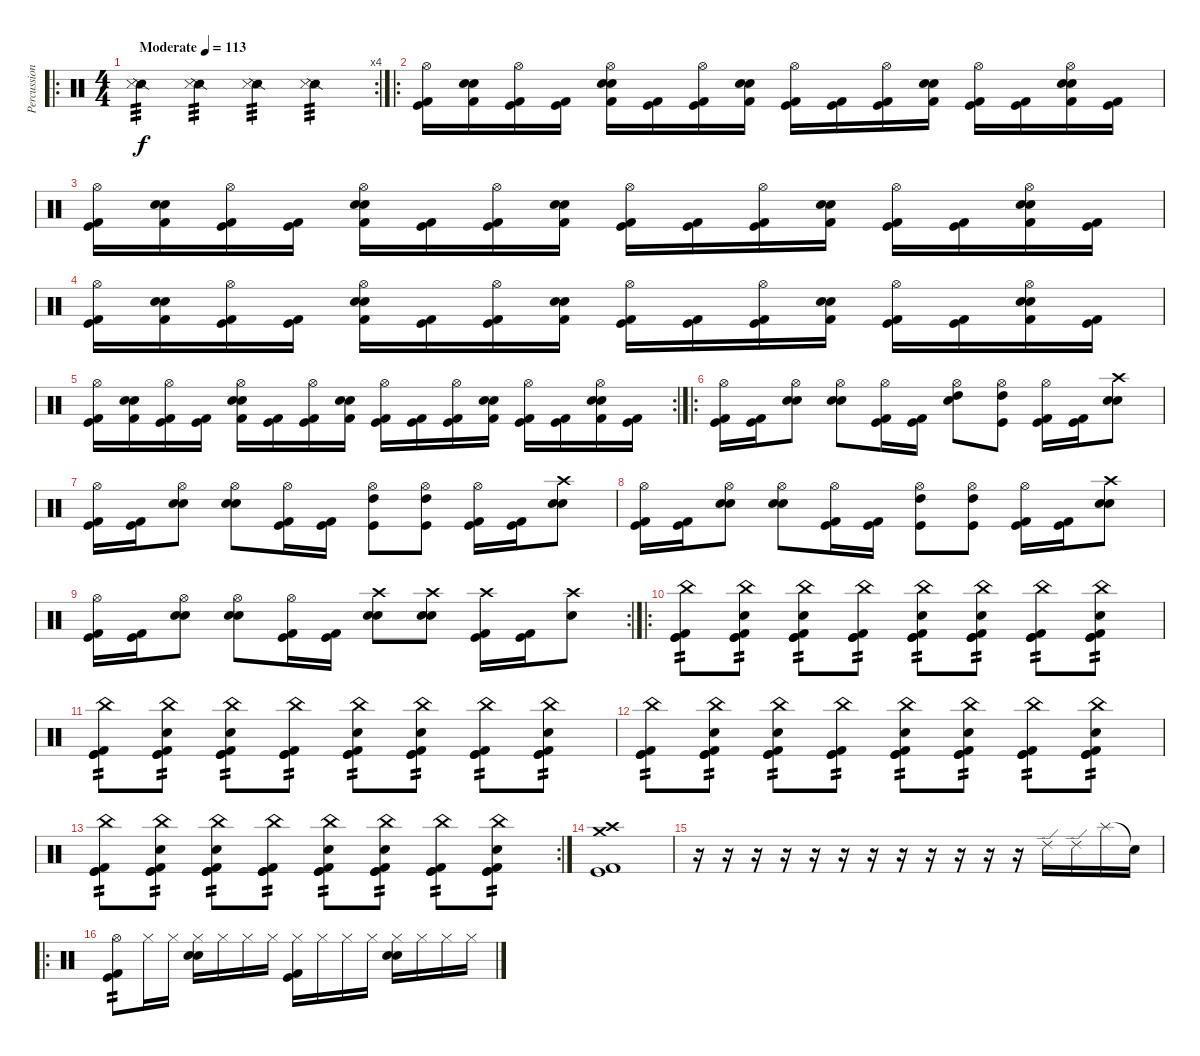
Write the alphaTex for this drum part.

\track ("Percussion" "Percussion") {instrument percussion}
\staff {score}
\articulation defaults
\ro
\rc 4
\ts (4 4)
\tempo (113 "Moderate")
\clef neutral
\ks c
("Snare (side stick) 2" "Metronome (hit)").4{tp 3 dy f} ("Snare (side stick) 2" "Metronome (hit)").4{tp 3} ("Snare (side stick) 2" "Metronome (hit)").4{tp 3} ("Snare (side stick) 2" "Metronome (hit)").4{tp 3} |
\ro
("Hi-Hat (open)" "Kick (hit) 2" "Kick (hit)").16 ("Kick (hit) 2" "Electric Snare (hit)" "Snare (hit) 2").16 ("Hi-Hat (open)" "Kick (hit) 2" "Kick (hit)").16 ("Kick (hit) 2" "Kick (hit)").16 ("Hi-Hat (open)" "Kick (hit) 2" "Electric Snare (hit)" "Snare (hit) 2").16 ("Kick (hit) 2" "Kick (hit)").16 ("Hi-Hat (open)" "Kick (hit) 2" "Kick (hit)").16 ("Kick (hit) 2" "Electric Snare (hit)" "Snare (hit) 2").16 ("Hi-Hat (open)" "Kick (hit) 2" "Kick (hit)").16 ("Kick (hit) 2" "Kick (hit)").16 ("Hi-Hat (open)" "Kick (hit) 2" "Kick (hit)").16 ("Kick (hit) 2" "Electric Snare (hit)" "Snare (hit) 2").16 ("Hi-Hat (open)" "Kick (hit) 2" "Kick (hit)").16 ("Kick (hit) 2" "Kick (hit)").16 ("Hi-Hat (open)" "Kick (hit) 2" "Electric Snare (hit)" "Snare (hit) 2").16 ("Kick (hit) 2" "Kick (hit)").16 |
("Hi-Hat (open)" "Kick (hit) 2" "Kick (hit)").16 ("Kick (hit) 2" "Electric Snare (hit)" "Snare (hit) 2").16 ("Hi-Hat (open)" "Kick (hit) 2" "Kick (hit)").16 ("Kick (hit) 2" "Kick (hit)").16 ("Hi-Hat (open)" "Kick (hit) 2" "Electric Snare (hit)" "Snare (hit) 2").16 ("Kick (hit) 2" "Kick (hit)").16 ("Hi-Hat (open)" "Kick (hit) 2" "Kick (hit)").16 ("Kick (hit) 2" "Electric Snare (hit)" "Snare (hit) 2").16 ("Hi-Hat (open)" "Kick (hit) 2" "Kick (hit)").16 ("Kick (hit) 2" "Kick (hit)").16 ("Hi-Hat (open)" "Kick (hit) 2" "Kick (hit)").16 ("Kick (hit) 2" "Electric Snare (hit)" "Snare (hit) 2").16 ("Hi-Hat (open)" "Kick (hit) 2" "Kick (hit)").16 ("Kick (hit) 2" "Kick (hit)").16 ("Hi-Hat (open)" "Kick (hit) 2" "Electric Snare (hit)" "Snare (hit) 2").16 ("Kick (hit) 2" "Kick (hit)").16 |
("Hi-Hat (open)" "Kick (hit) 2" "Kick (hit)").16 ("Kick (hit) 2" "Electric Snare (hit)" "Snare (hit) 2").16 ("Hi-Hat (open)" "Kick (hit) 2" "Kick (hit)").16 ("Kick (hit) 2" "Kick (hit)").16 ("Hi-Hat (open)" "Kick (hit) 2" "Electric Snare (hit)" "Snare (hit) 2").16 ("Kick (hit) 2" "Kick (hit)").16 ("Hi-Hat (open)" "Kick (hit) 2" "Kick (hit)").16 ("Kick (hit) 2" "Electric Snare (hit)" "Snare (hit) 2").16 ("Hi-Hat (open)" "Kick (hit) 2" "Kick (hit)").16 ("Kick (hit) 2" "Kick (hit)").16 ("Hi-Hat (open)" "Kick (hit) 2" "Kick (hit)").16 ("Kick (hit) 2" "Electric Snare (hit)" "Snare (hit) 2").16 ("Hi-Hat (open)" "Kick (hit) 2" "Kick (hit)").16 ("Kick (hit) 2" "Kick (hit)").16 ("Hi-Hat (open)" "Kick (hit) 2" "Electric Snare (hit)" "Snare (hit) 2").16 ("Kick (hit) 2" "Kick (hit)").16 |
\rc 2
("Hi-Hat (open)" "Kick (hit) 2" "Kick (hit)").16 ("Kick (hit) 2" "Electric Snare (hit)" "Snare (hit) 2").16 ("Hi-Hat (open)" "Kick (hit) 2" "Kick (hit)").16 ("Kick (hit) 2" "Kick (hit)").16 ("Hi-Hat (open)" "Kick (hit) 2" "Electric Snare (hit)" "Snare (hit) 2").16 ("Kick (hit) 2" "Kick (hit)").16 ("Hi-Hat (open)" "Kick (hit) 2" "Kick (hit)").16 ("Kick (hit) 2" "Electric Snare (hit)" "Snare (hit) 2").16 ("Hi-Hat (open)" "Kick (hit) 2" "Kick (hit)").16 ("Kick (hit) 2" "Kick (hit)").16 ("Hi-Hat (open)" "Kick (hit) 2" "Kick (hit)").16 ("Kick (hit) 2" "Electric Snare (hit)" "Snare (hit) 2").16 ("Hi-Hat (open)" "Kick (hit) 2" "Kick (hit)").16 ("Kick (hit) 2" "Kick (hit)").16 ("Hi-Hat (open)" "Kick (hit) 2" "Electric Snare (hit)" "Snare (hit) 2").16 ("Kick (hit) 2" "Kick (hit)").16 |
\ro
("Kick (hit)" "Kick (hit) 2" "Hi-Hat (open)").16 ("Kick (hit)" "Kick (hit) 2").16 ("Snare (hit) 2" "Hi-Hat (open)" "Electric Snare (hit)").8 ("Snare (hit) 2" "Hi-Hat (open)" "Electric Snare (hit)").8 ("Kick (hit)" "Kick (hit) 2" "Hi-Hat (open)").16 ("Kick (hit)" "Kick (hit) 2").16 ("Snare (hit) 2" "Hi-Hat (open)" "High Tom (hit)").8 ("Kick (hit)" "Hi-Hat (open)" "High Tom (hit)").8 ("Kick (hit)" "Kick (hit) 2" "Hi-Hat (open)").16 ("Kick (hit)" "Kick (hit) 2").16 ("Snare (hit) 2" "Crash high (hit)" "Electric Snare (hit)").8 |
("Kick (hit)" "Kick (hit) 2" "Hi-Hat (open)").16 ("Kick (hit)" "Kick (hit) 2").16 ("Snare (hit) 2" "Hi-Hat (open)" "Electric Snare (hit)").8 ("Snare (hit) 2" "Hi-Hat (open)" "Electric Snare (hit)").8 ("Kick (hit)" "Kick (hit) 2" "Hi-Hat (open)").16 ("Kick (hit)" "Kick (hit) 2").16 ("Kick (hit)" "Hi-Hat (open)" "High Tom (hit)").8 ("Kick (hit)" "Hi-Hat (open)" "High Tom (hit)").8 ("Kick (hit)" "Kick (hit) 2" "Hi-Hat (open)").16 ("Kick (hit)" "Kick (hit) 2").16 ("Snare (hit) 2" "Crash high (hit)" "Electric Snare (hit)").8 |
("Kick (hit)" "Kick (hit) 2" "Hi-Hat (open)").16 ("Kick (hit)" "Kick (hit) 2").16 ("Snare (hit) 2" "Hi-Hat (open)" "Electric Snare (hit)").8 ("Snare (hit) 2" "Hi-Hat (open)" "Electric Snare (hit)").8 ("Kick (hit)" "Kick (hit) 2" "Hi-Hat (open)").16 ("Kick (hit)" "Kick (hit) 2").16 ("Kick (hit)" "Hi-Hat (open)" "High Tom (hit)").8 ("Kick (hit)" "Hi-Hat (open)" "High Tom (hit)").8 ("Kick (hit)" "Kick (hit) 2" "Hi-Hat (open)").16 ("Kick (hit)" "Kick (hit) 2").16 ("Snare (hit) 2" "Crash high (hit)" "Electric Snare (hit)").8 |
\rc 2
("Kick (hit) 2" "Kick (hit)" "Hi-Hat (open)").16 ("Kick (hit)" "Kick (hit) 2").16 ("Snare (hit) 2" "Hi-Hat (open)" "Electric Snare (hit)").8 ("Snare (hit) 2" "Hi-Hat (open)" "Electric Snare (hit)").8 ("Kick (hit)" "Kick (hit) 2" "Hi-Hat (open)").16 ("Kick (hit)" "Kick (hit) 2").16 ("Snare (hit) 2" "Crash high (hit)" "Electric Snare (hit)").8 ("Snare (hit) 2" "Crash high (hit)" "Electric Snare (hit)").8 ("Kick (hit)" "Kick (hit) 2" "Crash high (hit)").16 ("Kick (hit)" "Kick (hit) 2").16 ("Snare (hit) 2" "Crash high (hit)").8 |
\ro
("Kick (hit) 2" "Kick (hit)" "Kick (hit)" "China (hit)").8{tp 2} ("Kick (hit) 2" "Kick (hit)" "Kick (hit)" "Electric Snare (hit)" "China (hit)").8{tp 2} ("Kick (hit) 2" "Kick (hit)" "Kick (hit)" "Electric Snare (hit)" "China (hit)").8{tp 2} ("Kick (hit) 2" "Kick (hit)" "Kick (hit)" "China (hit)").8{tp 2} ("Kick (hit) 2" "Kick (hit)" "Kick (hit)" "Electric Snare (hit)" "China (hit)").8{tp 2} ("Kick (hit) 2" "Kick (hit)" "Kick (hit)" "Electric Snare (hit)" "China (hit)").8{tp 2} ("Kick (hit) 2" "Kick (hit)" "Kick (hit)" "China (hit)").8{tp 2} ("Kick (hit) 2" "Kick (hit)" "Kick (hit)" "Electric Snare (hit)" "China (hit)").8{tp 2} |
("Kick (hit) 2" "Kick (hit)" "Kick (hit)" "China (hit)").8{tp 2} ("Kick (hit) 2" "Kick (hit)" "Kick (hit)" "Electric Snare (hit)" "China (hit)").8{tp 2} ("Kick (hit) 2" "Kick (hit)" "Kick (hit)" "Electric Snare (hit)" "China (hit)").8{tp 2} ("Kick (hit) 2" "Kick (hit)" "Kick (hit)" "China (hit)").8{tp 2} ("Kick (hit) 2" "Kick (hit)" "Kick (hit)" "Electric Snare (hit)" "China (hit)").8{tp 2} ("Kick (hit) 2" "Kick (hit)" "Kick (hit)" "Electric Snare (hit)" "China (hit)").8{tp 2} ("Kick (hit) 2" "Kick (hit)" "Kick (hit)" "China (hit)").8{tp 2} ("Kick (hit) 2" "Kick (hit)" "Kick (hit)" "Electric Snare (hit)" "China (hit)").8{tp 2} |
("Kick (hit) 2" "Kick (hit)" "Kick (hit)" "China (hit)").8{tp 2} ("Kick (hit) 2" "Kick (hit)" "Kick (hit)" "Electric Snare (hit)" "China (hit)").8{tp 2} ("Kick (hit) 2" "Kick (hit)" "Kick (hit)" "Electric Snare (hit)" "China (hit)").8{tp 2} ("Kick (hit) 2" "Kick (hit)" "Kick (hit)" "China (hit)").8{tp 2} ("Kick (hit) 2" "Kick (hit)" "Kick (hit)" "Electric Snare (hit)" "China (hit)").8{tp 2} ("Kick (hit) 2" "Kick (hit)" "Kick (hit)" "Electric Snare (hit)" "China (hit)").8{tp 2} ("Kick (hit) 2" "Kick (hit)" "Kick (hit)" "China (hit)").8{tp 2} ("Kick (hit) 2" "Kick (hit)" "Kick (hit)" "Electric Snare (hit)" "China (hit)").8{tp 2} |
\rc 2
("Kick (hit) 2" "Kick (hit)" "Kick (hit)" "China (hit)").8{tp 2} ("Kick (hit) 2" "Kick (hit)" "Kick (hit)" "Electric Snare (hit)" "China (hit)").8{tp 2} ("Kick (hit) 2" "Kick (hit)" "Kick (hit)" "Electric Snare (hit)" "China (hit)").8{tp 2} ("Kick (hit) 2" "Kick (hit)" "Kick (hit)" "China (hit)").8{tp 2} ("Kick (hit) 2" "Kick (hit)" "Kick (hit)" "Electric Snare (hit)" "China (hit)").8{tp 2} ("Kick (hit) 2" "Kick (hit)" "Kick (hit)" "Electric Snare (hit)" "China (hit)").8{tp 2} ("Kick (hit) 2" "Kick (hit)" "Kick (hit)" "China (hit)").8{tp 2} ("Kick (hit) 2" "Kick (hit)" "Kick (hit)" "Electric Snare (hit)" "China (hit)").8{tp 2} |
("Kick (hit)" "Crash medium (hit)" "Kick (hit) 2" "Crash high (hit)").1 |
r.16 r.16 r.16 r.16 r.16 r.16 r.16 r.16 r.16 r.16 r.16 r.16 "Ride (edge) 2".16 "Ride (edge) 2".16 "Splash (hit)".16 "Snare (hit)"{t}.16 |
\ro
("Kick (hit)" "Kick (hit) 2" "Hi-Hat (open)").8{tp 2} "Hi-Hat (closed)".16 "Hi-Hat (closed)".16 ("Snare (hit) 2" "Electric Snare (hit)" "Hi-Hat (closed)").16 "Hi-Hat (closed)".16 "Hi-Hat (closed)".16 "Hi-Hat (closed)".16 ("Kick (hit)" "Kick (hit) 2" "Hi-Hat (closed)").16 "Hi-Hat (closed)".16 "Hi-Hat (closed)".16 "Hi-Hat (closed)".16 ("Snare (hit) 2" "Electric Snare (hit)" "Hi-Hat (closed)").16 "Hi-Hat (closed)".16 "Hi-Hat (closed)".16 "Hi-Hat (closed)".16
